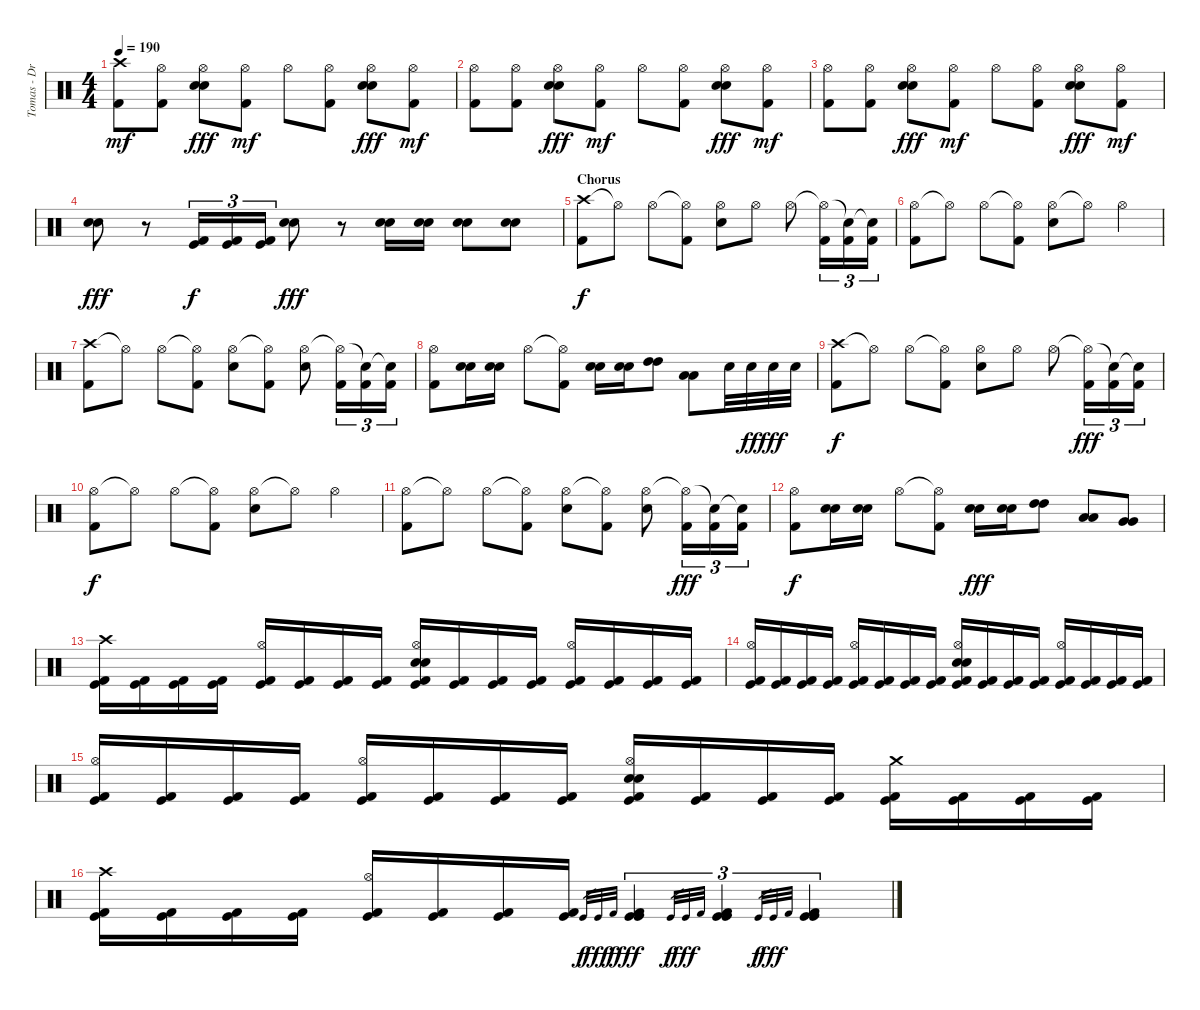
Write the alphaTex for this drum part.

\track ("Tomas - Drums" "Tomas - Dr") {instrument percussion}
\staff {score}
\articulation defaults
\ts (4 4)
\tempo 190
\clef neutral
\ks c
("Crash high (hit)" "Kick (hit) 2").8{dy mf} ("Hi-Hat (open)" "Kick (hit) 2").8 ("Hi-Hat (open)" "Electric Snare (hit)" "Electric Snare (hit)").8{dy fff} ("Hi-Hat (open)" "Kick (hit) 2").8{dy mf} "Hi-Hat (open)".8 ("Hi-Hat (open)" "Kick (hit) 2").8 ("Hi-Hat (open)" "Electric Snare (hit)" "Electric Snare (hit)").8{dy fff} ("Hi-Hat (open)" "Kick (hit) 2").8{dy mf} |
("Hi-Hat (open)" "Kick (hit) 2").8 ("Hi-Hat (open)" "Kick (hit) 2").8 ("Hi-Hat (open)" "Electric Snare (hit)" "Electric Snare (hit)").8{dy fff} ("Hi-Hat (open)" "Kick (hit) 2").8{dy mf} "Hi-Hat (open)".8 ("Hi-Hat (open)" "Kick (hit) 2").8 ("Hi-Hat (open)" "Electric Snare (hit)" "Electric Snare (hit)").8{dy fff} ("Hi-Hat (open)" "Kick (hit) 2").8{dy mf} |
("Hi-Hat (open)" "Kick (hit) 2").8 ("Hi-Hat (open)" "Kick (hit) 2").8 ("Hi-Hat (open)" "Electric Snare (hit)" "Electric Snare (hit)").8{dy fff} ("Hi-Hat (open)" "Kick (hit) 2").8{dy mf} "Hi-Hat (open)".8 ("Hi-Hat (open)" "Kick (hit) 2").8 ("Hi-Hat (open)" "Electric Snare (hit)" "Electric Snare (hit)").8{dy fff} ("Hi-Hat (open)" "Kick (hit) 2").8{dy mf} |
("Electric Snare (hit)" "Electric Snare (hit)").8{dy fff} r.8 ("Kick (hit)" "Kick (hit) 2").16{tu (3 2) dy f} ("Kick (hit)" "Kick (hit) 2").16{tu (3 2)} ("Kick (hit)" "Kick (hit) 2").16{tu (3 2)} ("Electric Snare (hit)" "Electric Snare (hit)").8{dy fff} r.8 ("Electric Snare (hit)" "Electric Snare (hit)").16 ("Electric Snare (hit)" "Electric Snare (hit)").16 ("Electric Snare (hit)" "Electric Snare (hit)").8 ("Electric Snare (hit)" "Electric Snare (hit)").8 |
\section ("" "Chorus")
("Crash high (hit)" "Kick (hit) 2").8{dy f} "Hi-Hat (open)"{t}.8 "Hi-Hat (open)".8 ("Hi-Hat (open)"{t} "Kick (hit) 2").8 ("Hi-Hat (open)" "Electric Snare (hit)").8 "Hi-Hat (open)".8 "Hi-Hat (open)".8 ("Hi-Hat (open)"{t} "Kick (hit) 2").16{tu (3 2)} ("Snare (hit)"{t} "Kick (hit) 2").16{tu (3 2)} ("Snare (hit)"{t} "Kick (hit) 2").16{tu (3 2)} |
("Hi-Hat (open)" "Kick (hit) 2").8 "Hi-Hat (open)"{t}.8 "Hi-Hat (open)".8 ("Hi-Hat (open)"{t} "Kick (hit) 2").8 ("Hi-Hat (open)" "Electric Snare (hit)").8 "Hi-Hat (open)"{t}.8 "Hi-Hat (open)".4 |
("Crash high (hit)" "Kick (hit) 2").8 "Hi-Hat (open)"{t}.8 "Hi-Hat (open)".8 ("Hi-Hat (open)"{t} "Kick (hit) 2").8 ("Hi-Hat (open)" "Electric Snare (hit)").8 ("Hi-Hat (open)"{t} "Kick (hit) 2").8 ("Hi-Hat (open)" "Electric Snare (hit)").8 ("Hi-Hat (open)"{t} "Kick (hit) 2").16{tu (3 2)} ("Snare (hit)"{t} "Kick (hit) 2").16{tu (3 2)} ("Snare (hit)"{t} "Kick (hit) 2").16{tu (3 2)} |
("Hi-Hat (open)" "Kick (hit) 2").8 ("Electric Snare (hit)" "Electric Snare (hit)").16 ("Electric Snare (hit)" "Electric Snare (hit)").16 "Hi-Hat (open)".8 ("Hi-Hat (open)"{t} "Kick (hit) 2").8 ("Electric Snare (hit)" "Electric Snare (hit)").16 ("Electric Snare (hit)" "Electric Snare (hit)").16 ("High Tom (hit)" "High Tom (hit)").8 ("Low Tom (hit)" "Low Tom (hit)").8 "Electric Snare (hit)".32 "Electric Snare (hit)".32{dy ff} "Electric Snare (hit)".32{dy fff} "Electric Snare (hit)".32 |
("Crash high (hit)" "Kick (hit) 2").8{dy f} "Hi-Hat (open)"{t}.8 "Hi-Hat (open)".8 ("Hi-Hat (open)"{t} "Kick (hit) 2").8 ("Hi-Hat (open)" "Electric Snare (hit)").8 "Hi-Hat (open)".8 "Hi-Hat (open)".8 ("Hi-Hat (open)"{t} "Kick (hit) 2").16{tu (3 2) dy fff} ("Snare (hit)"{t} "Kick (hit) 2").16{tu (3 2)} ("Snare (hit)"{t} "Kick (hit) 2").16{tu (3 2)} |
("Hi-Hat (open)" "Kick (hit) 2").8{dy f} "Hi-Hat (open)"{t}.8 "Hi-Hat (open)".8 ("Hi-Hat (open)"{t} "Kick (hit) 2").8 ("Hi-Hat (open)" "Electric Snare (hit)").8 "Hi-Hat (open)"{t}.8 "Hi-Hat (open)".4 |
("Hi-Hat (open)" "Kick (hit) 2").8 "Hi-Hat (open)"{t}.8 "Hi-Hat (open)".8 ("Hi-Hat (open)"{t} "Kick (hit) 2").8 ("Hi-Hat (open)" "Electric Snare (hit)").8 ("Hi-Hat (open)"{t} "Kick (hit) 2").8 ("Hi-Hat (open)" "Electric Snare (hit)").8 ("Hi-Hat (open)"{t} "Kick (hit) 2").16{tu (3 2) dy fff} ("Snare (hit)"{t} "Kick (hit) 2").16{tu (3 2)} ("Snare (hit)"{t} "Kick (hit) 2").16{tu (3 2)} |
("Hi-Hat (open)" "Kick (hit) 2").8{dy f} ("Electric Snare (hit)" "Electric Snare (hit)").16 ("Electric Snare (hit)" "Electric Snare (hit)").16 "Hi-Hat (open)".8 ("Hi-Hat (open)"{t} "Kick (hit) 2").8 ("Electric Snare (hit)" "Electric Snare (hit)").16{dy fff} ("Electric Snare (hit)" "Electric Snare (hit)").16 ("High Tom (hit)" "High Tom (hit)").8 ("Low Tom (hit)" "Low Tom (hit)").8 ("Very Low Tom (hit)" "Very Low Tom (hit)").8 |
("Crash high (hit)" "Kick (hit)" "Kick (hit) 2").16 ("Kick (hit)" "Kick (hit) 2").16 ("Kick (hit)" "Kick (hit) 2").16 ("Kick (hit)" "Kick (hit) 2").16 ("Hi-Hat (open)" "Kick (hit)" "Kick (hit) 2").16 ("Kick (hit)" "Kick (hit) 2").16 ("Kick (hit)" "Kick (hit) 2").16 ("Kick (hit)" "Kick (hit) 2").16 ("Hi-Hat (open)" "Electric Snare (hit)" "Electric Snare (hit)" "Kick (hit)" "Kick (hit) 2").16 ("Kick (hit)" "Kick (hit) 2").16 ("Kick (hit)" "Kick (hit) 2").16 ("Kick (hit)" "Kick (hit) 2").16 ("Hi-Hat (open)" "Kick (hit)" "Kick (hit) 2").16 ("Kick (hit)" "Kick (hit) 2").16 ("Kick (hit)" "Kick (hit) 2").16 ("Kick (hit)" "Kick (hit) 2").16 |
("Hi-Hat (open)" "Kick (hit)" "Kick (hit) 2").16 ("Kick (hit)" "Kick (hit) 2").16 ("Kick (hit)" "Kick (hit) 2").16 ("Kick (hit)" "Kick (hit) 2").16 ("Hi-Hat (open)" "Kick (hit)" "Kick (hit) 2").16 ("Kick (hit)" "Kick (hit) 2").16 ("Kick (hit)" "Kick (hit) 2").16 ("Kick (hit)" "Kick (hit) 2").16 ("Hi-Hat (open)" "Electric Snare (hit)" "Electric Snare (hit)" "Kick (hit)" "Kick (hit) 2").16 ("Kick (hit)" "Kick (hit) 2").16 ("Kick (hit)" "Kick (hit) 2").16 ("Kick (hit)" "Kick (hit) 2").16 ("Hi-Hat (open)" "Kick (hit)" "Kick (hit) 2").16 ("Kick (hit)" "Kick (hit) 2").16 ("Kick (hit)" "Kick (hit) 2").16 ("Kick (hit)" "Kick (hit) 2").16 |
("Hi-Hat (open)" "Kick (hit)" "Kick (hit) 2").16 ("Kick (hit)" "Kick (hit) 2").16 ("Kick (hit)" "Kick (hit) 2").16 ("Kick (hit)" "Kick (hit) 2").16 ("Hi-Hat (open)" "Kick (hit)" "Kick (hit) 2").16 ("Kick (hit)" "Kick (hit) 2").16 ("Kick (hit)" "Kick (hit) 2").16 ("Kick (hit)" "Kick (hit) 2").16 ("Hi-Hat (open)" "Electric Snare (hit)" "Electric Snare (hit)" "Kick (hit)" "Kick (hit) 2").16 ("Kick (hit)" "Kick (hit) 2").16 ("Kick (hit)" "Kick (hit) 2").16 ("Kick (hit)" "Kick (hit) 2").16 ("Crash medium (hit)" "Kick (hit)" "Kick (hit) 2").16 ("Kick (hit)" "Kick (hit) 2").16 ("Kick (hit)" "Kick (hit) 2").16 ("Kick (hit)" "Kick (hit) 2").16 |
("Crash high (hit)" "Kick (hit)" "Kick (hit) 2").16 ("Kick (hit)" "Kick (hit) 2").16 ("Kick (hit)" "Kick (hit) 2").16 ("Kick (hit)" "Kick (hit) 2").16 ("Hi-Hat (open)" "Kick (hit)" "Kick (hit) 2").16 ("Kick (hit)" "Kick (hit) 2").16 ("Kick (hit)" "Kick (hit) 2").16 ("Kick (hit)" "Kick (hit) 2").16 "Kick (hit)".32{gr dy f} "Kick (hit)".32{gr dy fff} "Kick (hit) 2".32{gr dy f} ("Kick (hit)" "Kick (hit)" "Kick (hit) 2").4{tu (3 2) dy fff} "Kick (hit)".32{gr dy f} "Kick (hit)".32{gr dy fff} "Kick (hit) 2".32{gr} ("Kick (hit)" "Kick (hit)" "Kick (hit) 2").4{tu (3 2)} "Kick (hit)".32{gr dy f} "Kick (hit)".32{gr dy fff} "Kick (hit) 2".32{gr} ("Kick (hit)" "Kick (hit)" "Kick (hit) 2").4{tu (3 2)}
